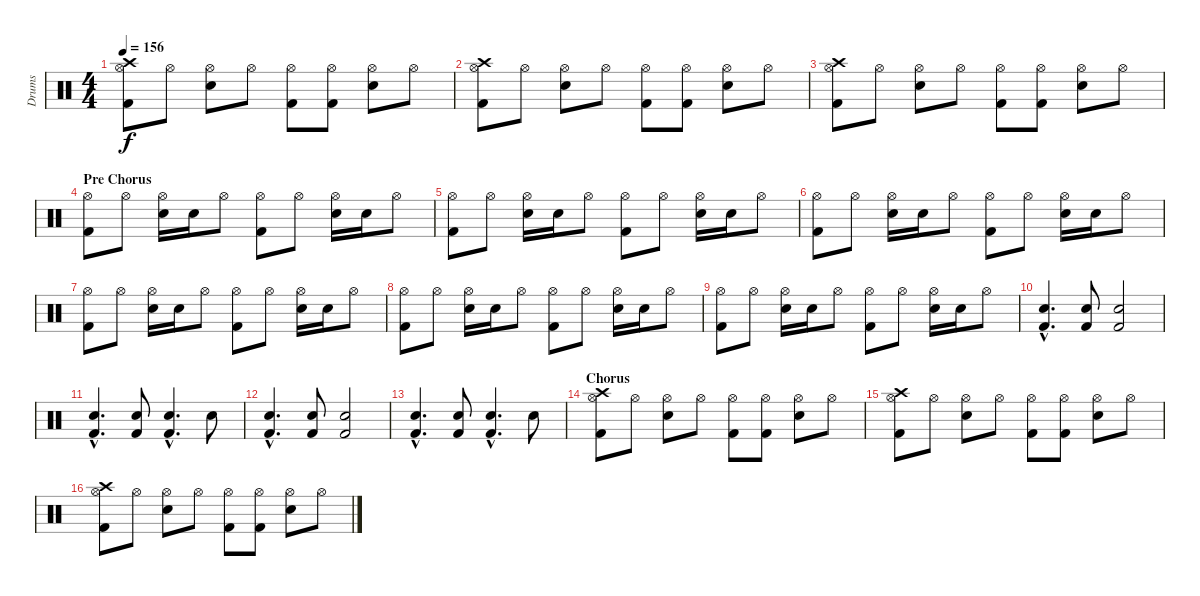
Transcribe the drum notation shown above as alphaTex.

\track ("Drums" "Drums") {instrument percussion}
\staff {score}
\articulation defaults
\ts (4 4)
\tempo 156
\clef neutral
\ks c
("Crash high (hit)" "Hi-Hat (open)" "Kick (hit) 2").8{dy f} "Hi-Hat (open)".8 ("Hi-Hat (open)" "Snare (hit) 2").8 "Hi-Hat (open)".8 ("Hi-Hat (open)" "Kick (hit) 2").8 ("Hi-Hat (open)" "Kick (hit) 2").8 ("Hi-Hat (open)" "Snare (hit) 2").8 "Hi-Hat (open)".8 |
("Crash high (hit)" "Hi-Hat (open)" "Kick (hit) 2").8 "Hi-Hat (open)".8 ("Hi-Hat (open)" "Snare (hit) 2").8 "Hi-Hat (open)".8 ("Hi-Hat (open)" "Kick (hit) 2").8 ("Hi-Hat (open)" "Kick (hit) 2").8 ("Hi-Hat (open)" "Snare (hit) 2").8 "Hi-Hat (open)".8 |
("Crash high (hit)" "Hi-Hat (open)" "Kick (hit) 2").8 "Hi-Hat (open)".8 ("Hi-Hat (open)" "Snare (hit) 2").8 "Hi-Hat (open)".8 ("Hi-Hat (open)" "Kick (hit) 2").8 ("Hi-Hat (open)" "Kick (hit) 2").8 ("Hi-Hat (open)" "Snare (hit) 2").8 "Hi-Hat (open)".8 |
\section ("" "Pre Chorus")
("Hi-Hat (open)" "Kick (hit) 2").8 "Hi-Hat (open)".8 ("Hi-Hat (open)" "Snare (hit) 2").16 "Snare (hit) 2".16 "Hi-Hat (open)".8 ("Hi-Hat (open)" "Kick (hit) 2").8 "Hi-Hat (open)".8 ("Hi-Hat (open)" "Snare (hit) 2").16 "Snare (hit) 2".16 "Hi-Hat (open)".8 |
("Hi-Hat (open)" "Kick (hit) 2").8 "Hi-Hat (open)".8 ("Hi-Hat (open)" "Snare (hit) 2").16 "Snare (hit) 2".16 "Hi-Hat (open)".8 ("Hi-Hat (open)" "Kick (hit) 2").8 "Hi-Hat (open)".8 ("Hi-Hat (open)" "Snare (hit) 2").16 "Snare (hit) 2".16 "Hi-Hat (open)".8 |
("Hi-Hat (open)" "Kick (hit) 2").8 "Hi-Hat (open)".8 ("Hi-Hat (open)" "Snare (hit) 2").16 "Snare (hit) 2".16 "Hi-Hat (open)".8 ("Hi-Hat (open)" "Kick (hit) 2").8 "Hi-Hat (open)".8 ("Hi-Hat (open)" "Snare (hit) 2").16 "Snare (hit) 2".16 "Hi-Hat (open)".8 |
("Hi-Hat (open)" "Kick (hit) 2").8 "Hi-Hat (open)".8 ("Hi-Hat (open)" "Snare (hit) 2").16 "Snare (hit) 2".16 "Hi-Hat (open)".8 ("Hi-Hat (open)" "Kick (hit) 2").8 "Hi-Hat (open)".8 ("Hi-Hat (open)" "Snare (hit) 2").16 "Snare (hit) 2".16 "Hi-Hat (open)".8 |
("Hi-Hat (open)" "Kick (hit) 2").8 "Hi-Hat (open)".8 ("Hi-Hat (open)" "Snare (hit) 2").16 "Snare (hit) 2".16 "Hi-Hat (open)".8 ("Hi-Hat (open)" "Kick (hit) 2").8 "Hi-Hat (open)".8 ("Hi-Hat (open)" "Snare (hit) 2").16 "Snare (hit) 2".16 "Hi-Hat (open)".8 |
("Hi-Hat (open)" "Kick (hit) 2").8 "Hi-Hat (open)".8 ("Hi-Hat (open)" "Snare (hit) 2").16 "Snare (hit) 2".16 "Hi-Hat (open)".8 ("Hi-Hat (open)" "Kick (hit) 2").8 "Hi-Hat (open)".8 ("Hi-Hat (open)" "Snare (hit) 2").16 "Snare (hit) 2".16 "Hi-Hat (open)".8 |
("Snare (hit) 2"{hac} "Kick (hit) 2"{hac}).4{d} ("Snare (hit) 2" "Kick (hit) 2").8 ("Snare (hit) 2" "Kick (hit) 2").2 |
("Snare (hit) 2"{hac} "Kick (hit) 2"{hac}).4{d} ("Snare (hit) 2" "Kick (hit) 2").8 ("Snare (hit) 2"{hac} "Kick (hit) 2"{hac}).4{d} "Snare (hit) 2".8 |
("Snare (hit) 2"{hac} "Kick (hit) 2"{hac}).4{d} ("Snare (hit) 2" "Kick (hit) 2").8 ("Snare (hit) 2" "Kick (hit) 2").2 |
("Snare (hit) 2"{hac} "Kick (hit) 2"{hac}).4{d} ("Snare (hit) 2" "Kick (hit) 2").8 ("Snare (hit) 2"{hac} "Kick (hit) 2"{hac}).4{d} "Snare (hit) 2".8 |
\section ("" "Chorus")
("Crash high (hit)" "Hi-Hat (open)" "Kick (hit) 2").8 "Hi-Hat (open)".8 ("Hi-Hat (open)" "Snare (hit) 2").8 "Hi-Hat (open)".8 ("Hi-Hat (open)" "Kick (hit) 2").8 ("Hi-Hat (open)" "Kick (hit) 2").8 ("Hi-Hat (open)" "Snare (hit) 2").8 "Hi-Hat (open)".8 |
("Crash high (hit)" "Hi-Hat (open)" "Kick (hit) 2").8 "Hi-Hat (open)".8 ("Hi-Hat (open)" "Snare (hit) 2").8 "Hi-Hat (open)".8 ("Hi-Hat (open)" "Kick (hit) 2").8 ("Hi-Hat (open)" "Kick (hit) 2").8 ("Hi-Hat (open)" "Snare (hit) 2").8 "Hi-Hat (open)".8 |
("Crash high (hit)" "Hi-Hat (open)" "Kick (hit) 2").8 "Hi-Hat (open)".8 ("Hi-Hat (open)" "Snare (hit) 2").8 "Hi-Hat (open)".8 ("Hi-Hat (open)" "Kick (hit) 2").8 ("Hi-Hat (open)" "Kick (hit) 2").8 ("Hi-Hat (open)" "Snare (hit) 2").8 "Hi-Hat (open)".8
